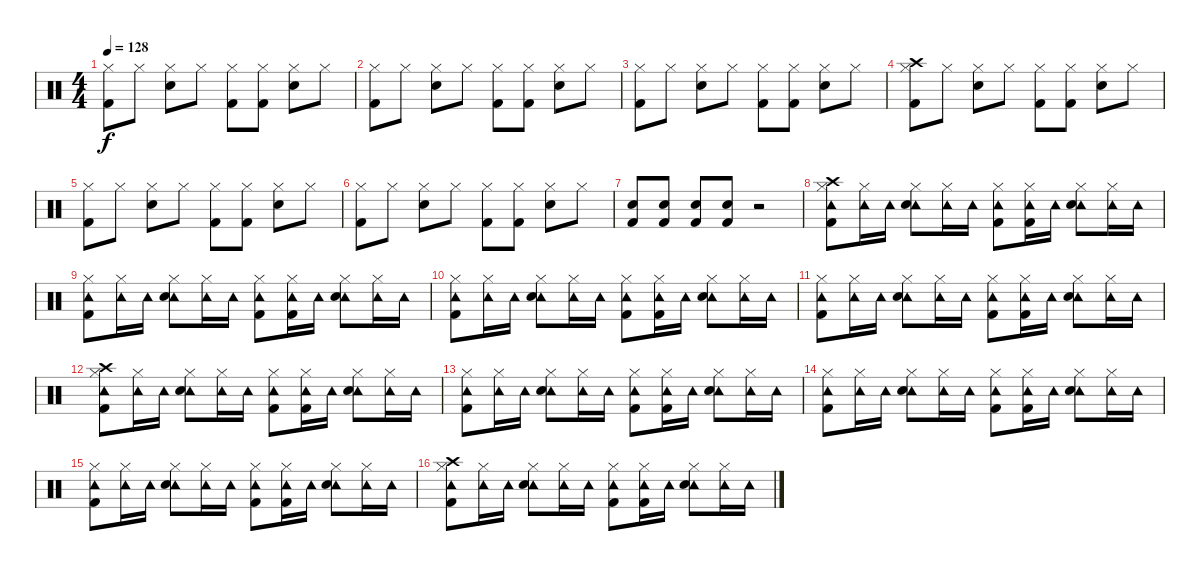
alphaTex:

\track "" {instrument percussion}
\staff {score}
\articulation defaults
\ts (4 4)
\tempo 128
\clef neutral
\ks c
("Hi-Hat (closed)" "Kick (hit) 2").8{dy f} "Hi-Hat (closed)".8 ("Hi-Hat (closed)" "Snare (hit) 2").8 "Hi-Hat (closed)".8 ("Hi-Hat (closed)" "Kick (hit) 2").8 ("Hi-Hat (closed)" "Kick (hit) 2").8 ("Hi-Hat (closed)" "Snare (hit) 2").8 "Hi-Hat (closed)".8 |
("Hi-Hat (closed)" "Kick (hit) 2").8 "Hi-Hat (closed)".8 ("Hi-Hat (closed)" "Snare (hit) 2").8 "Hi-Hat (closed)".8 ("Hi-Hat (closed)" "Kick (hit) 2").8 ("Hi-Hat (closed)" "Kick (hit) 2").8 ("Hi-Hat (closed)" "Snare (hit) 2").8 "Hi-Hat (closed)".8 |
("Hi-Hat (closed)" "Kick (hit) 2").8 "Hi-Hat (closed)".8 ("Hi-Hat (closed)" "Snare (hit) 2").8 "Hi-Hat (closed)".8 ("Hi-Hat (closed)" "Kick (hit) 2").8 ("Hi-Hat (closed)" "Kick (hit) 2").8 ("Hi-Hat (closed)" "Snare (hit) 2").8 "Hi-Hat (closed)".8 |
("Hi-Hat (closed)" "Crash high (hit)" "Kick (hit) 2").8 "Hi-Hat (closed)".8 ("Hi-Hat (closed)" "Snare (hit) 2").8 "Hi-Hat (closed)".8 ("Hi-Hat (closed)" "Kick (hit) 2").8 ("Hi-Hat (closed)" "Kick (hit) 2").8 ("Hi-Hat (closed)" "Snare (hit) 2").8 "Hi-Hat (closed)".8 |
("Hi-Hat (closed)" "Kick (hit) 2").8 "Hi-Hat (closed)".8 ("Hi-Hat (closed)" "Snare (hit) 2").8 "Hi-Hat (closed)".8 ("Hi-Hat (closed)" "Kick (hit) 2").8 ("Hi-Hat (closed)" "Kick (hit) 2").8 ("Hi-Hat (closed)" "Snare (hit) 2").8 "Hi-Hat (closed)".8 |
("Hi-Hat (closed)" "Kick (hit) 2").8 "Hi-Hat (closed)".8 ("Hi-Hat (closed)" "Snare (hit) 2").8 "Hi-Hat (closed)".8 ("Hi-Hat (closed)" "Kick (hit) 2").8 ("Hi-Hat (closed)" "Kick (hit) 2").8 ("Hi-Hat (closed)" "Snare (hit) 2").8 "Hi-Hat (closed)".8 |
("Snare (hit) 2" "Kick (hit) 2").8 ("Snare (hit) 2" "Kick (hit) 2").8 ("Snare (hit) 2" "Kick (hit) 2").8 ("Snare (hit) 2" "Kick (hit) 2").8 r.2 |
("Hi-Hat (closed)" "Tambourine (hit)" "Crash high (hit)" "Kick (hit) 2").8 ("Hi-Hat (closed)" "Tambourine (hit)").16 "Tambourine (hit)".16 ("Hi-Hat (closed)" "Tambourine (hit)" "Snare (hit) 2").8 ("Hi-Hat (closed)" "Tambourine (hit)").16 "Tambourine (hit)".16 ("Hi-Hat (closed)" "Tambourine (hit)" "Kick (hit) 2").8 ("Hi-Hat (closed)" "Tambourine (hit)" "Kick (hit) 2").16 "Tambourine (hit)".16 ("Hi-Hat (closed)" "Tambourine (hit)" "Snare (hit) 2").8 ("Hi-Hat (closed)" "Tambourine (hit)").16 "Tambourine (hit)".16 |
("Hi-Hat (closed)" "Tambourine (hit)" "Kick (hit) 2").8 ("Hi-Hat (closed)" "Tambourine (hit)").16 "Tambourine (hit)".16 ("Hi-Hat (closed)" "Tambourine (hit)" "Snare (hit) 2").8 ("Hi-Hat (closed)" "Tambourine (hit)").16 "Tambourine (hit)".16 ("Hi-Hat (closed)" "Tambourine (hit)" "Kick (hit) 2").8 ("Hi-Hat (closed)" "Tambourine (hit)" "Kick (hit) 2").16 "Tambourine (hit)".16 ("Hi-Hat (closed)" "Tambourine (hit)" "Snare (hit) 2").8 ("Hi-Hat (closed)" "Tambourine (hit)").16 "Tambourine (hit)".16 |
("Hi-Hat (closed)" "Tambourine (hit)" "Kick (hit) 2").8 ("Hi-Hat (closed)" "Tambourine (hit)").16 "Tambourine (hit)".16 ("Hi-Hat (closed)" "Tambourine (hit)" "Snare (hit) 2").8 ("Hi-Hat (closed)" "Tambourine (hit)").16 "Tambourine (hit)".16 ("Hi-Hat (closed)" "Tambourine (hit)" "Kick (hit) 2").8 ("Hi-Hat (closed)" "Tambourine (hit)" "Kick (hit) 2").16 "Tambourine (hit)".16 ("Hi-Hat (closed)" "Tambourine (hit)" "Snare (hit) 2").8 ("Hi-Hat (closed)" "Tambourine (hit)").16 "Tambourine (hit)".16 |
("Hi-Hat (closed)" "Tambourine (hit)" "Kick (hit) 2").8 ("Hi-Hat (closed)" "Tambourine (hit)").16 "Tambourine (hit)".16 ("Hi-Hat (closed)" "Tambourine (hit)" "Snare (hit) 2").8 ("Hi-Hat (closed)" "Tambourine (hit)").16 "Tambourine (hit)".16 ("Hi-Hat (closed)" "Tambourine (hit)" "Kick (hit) 2").8 ("Hi-Hat (closed)" "Tambourine (hit)" "Kick (hit) 2").16 "Tambourine (hit)".16 ("Hi-Hat (closed)" "Tambourine (hit)" "Snare (hit) 2").8 ("Hi-Hat (closed)" "Tambourine (hit)").16 "Tambourine (hit)".16 |
("Hi-Hat (closed)" "Tambourine (hit)" "Crash high (hit)" "Kick (hit) 2").8 ("Hi-Hat (closed)" "Tambourine (hit)").16 "Tambourine (hit)".16 ("Hi-Hat (closed)" "Tambourine (hit)" "Snare (hit) 2").8 ("Hi-Hat (closed)" "Tambourine (hit)").16 "Tambourine (hit)".16 ("Hi-Hat (closed)" "Tambourine (hit)" "Kick (hit) 2").8 ("Hi-Hat (closed)" "Tambourine (hit)" "Kick (hit) 2").16 "Tambourine (hit)".16 ("Hi-Hat (closed)" "Tambourine (hit)" "Snare (hit) 2").8 ("Hi-Hat (closed)" "Tambourine (hit)").16 "Tambourine (hit)".16 |
("Hi-Hat (closed)" "Tambourine (hit)" "Kick (hit) 2").8 ("Hi-Hat (closed)" "Tambourine (hit)").16 "Tambourine (hit)".16 ("Hi-Hat (closed)" "Tambourine (hit)" "Snare (hit) 2").8 ("Hi-Hat (closed)" "Tambourine (hit)").16 "Tambourine (hit)".16 ("Hi-Hat (closed)" "Tambourine (hit)" "Kick (hit) 2").8 ("Hi-Hat (closed)" "Tambourine (hit)" "Kick (hit) 2").16 "Tambourine (hit)".16 ("Hi-Hat (closed)" "Tambourine (hit)" "Snare (hit) 2").8 ("Hi-Hat (closed)" "Tambourine (hit)").16 "Tambourine (hit)".16 |
("Hi-Hat (closed)" "Tambourine (hit)" "Kick (hit) 2").8 ("Hi-Hat (closed)" "Tambourine (hit)").16 "Tambourine (hit)".16 ("Hi-Hat (closed)" "Tambourine (hit)" "Snare (hit) 2").8 ("Hi-Hat (closed)" "Tambourine (hit)").16 "Tambourine (hit)".16 ("Hi-Hat (closed)" "Tambourine (hit)" "Kick (hit) 2").8 ("Hi-Hat (closed)" "Tambourine (hit)" "Kick (hit) 2").16 "Tambourine (hit)".16 ("Hi-Hat (closed)" "Tambourine (hit)" "Snare (hit) 2").8 ("Hi-Hat (closed)" "Tambourine (hit)").16 "Tambourine (hit)".16 |
("Hi-Hat (closed)" "Tambourine (hit)" "Kick (hit) 2").8 ("Hi-Hat (closed)" "Tambourine (hit)").16 "Tambourine (hit)".16 ("Hi-Hat (closed)" "Tambourine (hit)" "Snare (hit) 2").8 ("Hi-Hat (closed)" "Tambourine (hit)").16 "Tambourine (hit)".16 ("Hi-Hat (closed)" "Tambourine (hit)" "Kick (hit) 2").8 ("Hi-Hat (closed)" "Tambourine (hit)" "Kick (hit) 2").16 "Tambourine (hit)".16 ("Hi-Hat (closed)" "Tambourine (hit)" "Snare (hit) 2").8 ("Hi-Hat (closed)" "Tambourine (hit)").16 "Tambourine (hit)".16 |
("Hi-Hat (closed)" "Tambourine (hit)" "Crash high (hit)" "Kick (hit) 2").8 ("Hi-Hat (closed)" "Tambourine (hit)").16 "Tambourine (hit)".16 ("Hi-Hat (closed)" "Tambourine (hit)" "Snare (hit) 2").8 ("Hi-Hat (closed)" "Tambourine (hit)").16 "Tambourine (hit)".16 ("Hi-Hat (closed)" "Tambourine (hit)" "Kick (hit) 2").8 ("Hi-Hat (closed)" "Tambourine (hit)" "Kick (hit) 2").16 "Tambourine (hit)".16 ("Hi-Hat (closed)" "Tambourine (hit)" "Snare (hit) 2").8 ("Hi-Hat (closed)" "Tambourine (hit)").16 "Tambourine (hit)".16
